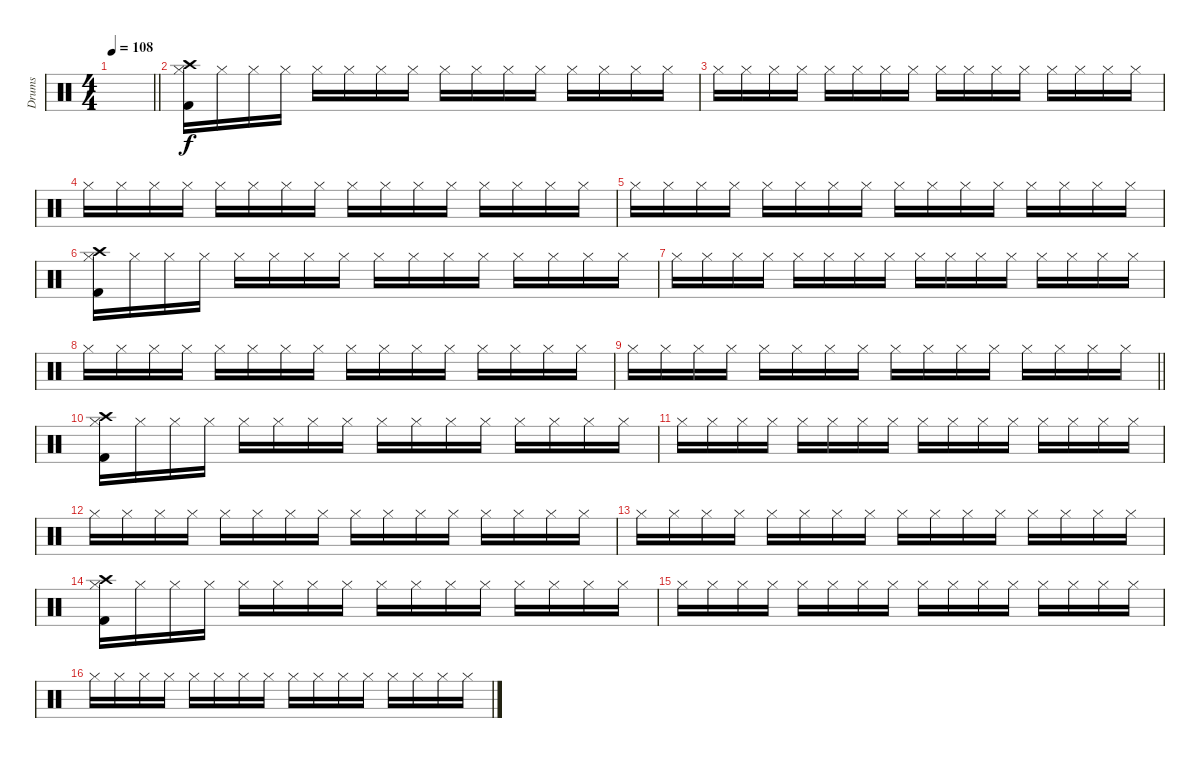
\track ("Drums" "Drums") {instrument percussion}
\staff {score}
\articulation defaults
\ts (4 4)
\tempo 108
\clef neutral
\barLineRight lightlight
\ks c
|
\section ("" "")
("Crash high (hit)" "Hi-Hat (closed)" "Kick (hit) 2").16 "Hi-Hat (closed)".16 "Hi-Hat (closed)".16 "Hi-Hat (closed)".16 "Hi-Hat (closed)".16 "Hi-Hat (closed)".16 "Hi-Hat (closed)".16 "Hi-Hat (closed)".16 "Hi-Hat (closed)".16 "Hi-Hat (closed)".16 "Hi-Hat (closed)".16 "Hi-Hat (closed)".16 "Hi-Hat (closed)".16 "Hi-Hat (closed)".16 "Hi-Hat (closed)".16 "Hi-Hat (closed)".16 |
"Hi-Hat (closed)".16 "Hi-Hat (closed)".16 "Hi-Hat (closed)".16 "Hi-Hat (closed)".16 "Hi-Hat (closed)".16 "Hi-Hat (closed)".16 "Hi-Hat (closed)".16 "Hi-Hat (closed)".16 "Hi-Hat (closed)".16 "Hi-Hat (closed)".16 "Hi-Hat (closed)".16 "Hi-Hat (closed)".16 "Hi-Hat (closed)".16 "Hi-Hat (closed)".16 "Hi-Hat (closed)".16 "Hi-Hat (closed)".16 |
"Hi-Hat (closed)".16 "Hi-Hat (closed)".16 "Hi-Hat (closed)".16 "Hi-Hat (closed)".16 "Hi-Hat (closed)".16 "Hi-Hat (closed)".16 "Hi-Hat (closed)".16 "Hi-Hat (closed)".16 "Hi-Hat (closed)".16 "Hi-Hat (closed)".16 "Hi-Hat (closed)".16 "Hi-Hat (closed)".16 "Hi-Hat (closed)".16 "Hi-Hat (closed)".16 "Hi-Hat (closed)".16 "Hi-Hat (closed)".16 |
"Hi-Hat (closed)".16 "Hi-Hat (closed)".16 "Hi-Hat (closed)".16 "Hi-Hat (closed)".16 "Hi-Hat (closed)".16 "Hi-Hat (closed)".16 "Hi-Hat (closed)".16 "Hi-Hat (closed)".16 "Hi-Hat (closed)".16 "Hi-Hat (closed)".16 "Hi-Hat (closed)".16 "Hi-Hat (closed)".16 "Hi-Hat (closed)".16 "Hi-Hat (closed)".16 "Hi-Hat (closed)".16 "Hi-Hat (closed)".16 |
("Crash high (hit)" "Hi-Hat (closed)" "Kick (hit) 2").16 "Hi-Hat (closed)".16 "Hi-Hat (closed)".16 "Hi-Hat (closed)".16 "Hi-Hat (closed)".16 "Hi-Hat (closed)".16 "Hi-Hat (closed)".16 "Hi-Hat (closed)".16 "Hi-Hat (closed)".16 "Hi-Hat (closed)".16 "Hi-Hat (closed)".16 "Hi-Hat (closed)".16 "Hi-Hat (closed)".16 "Hi-Hat (closed)".16 "Hi-Hat (closed)".16 "Hi-Hat (closed)".16 |
"Hi-Hat (closed)".16 "Hi-Hat (closed)".16 "Hi-Hat (closed)".16 "Hi-Hat (closed)".16 "Hi-Hat (closed)".16 "Hi-Hat (closed)".16 "Hi-Hat (closed)".16 "Hi-Hat (closed)".16 "Hi-Hat (closed)".16 "Hi-Hat (closed)".16 "Hi-Hat (closed)".16 "Hi-Hat (closed)".16 "Hi-Hat (closed)".16 "Hi-Hat (closed)".16 "Hi-Hat (closed)".16 "Hi-Hat (closed)".16 |
"Hi-Hat (closed)".16 "Hi-Hat (closed)".16 "Hi-Hat (closed)".16 "Hi-Hat (closed)".16 "Hi-Hat (closed)".16 "Hi-Hat (closed)".16 "Hi-Hat (closed)".16 "Hi-Hat (closed)".16 "Hi-Hat (closed)".16 "Hi-Hat (closed)".16 "Hi-Hat (closed)".16 "Hi-Hat (closed)".16 "Hi-Hat (closed)".16 "Hi-Hat (closed)".16 "Hi-Hat (closed)".16 "Hi-Hat (closed)".16 |
\barLineRight lightlight "Hi-Hat (closed)".16 "Hi-Hat (closed)".16 "Hi-Hat (closed)".16 "Hi-Hat (closed)".16 "Hi-Hat (closed)".16 "Hi-Hat (closed)".16 "Hi-Hat (closed)".16 "Hi-Hat (closed)".16 "Hi-Hat (closed)".16 "Hi-Hat (closed)".16 "Hi-Hat (closed)".16 "Hi-Hat (closed)".16 "Hi-Hat (closed)".16 "Hi-Hat (closed)".16 "Hi-Hat (closed)".16 "Hi-Hat (closed)".16
|
\section ("" "")
("Crash high (hit)" "Hi-Hat (closed)" "Kick (hit) 2").16 "Hi-Hat (closed)".16 "Hi-Hat (closed)".16 "Hi-Hat (closed)".16 "Hi-Hat (closed)".16 "Hi-Hat (closed)".16 "Hi-Hat (closed)".16 "Hi-Hat (closed)".16 "Hi-Hat (closed)".16 "Hi-Hat (closed)".16 "Hi-Hat (closed)".16 "Hi-Hat (closed)".16 "Hi-Hat (closed)".16 "Hi-Hat (closed)".16 "Hi-Hat (closed)".16 "Hi-Hat (closed)".16 |
"Hi-Hat (closed)".16 "Hi-Hat (closed)".16 "Hi-Hat (closed)".16 "Hi-Hat (closed)".16 "Hi-Hat (closed)".16 "Hi-Hat (closed)".16 "Hi-Hat (closed)".16 "Hi-Hat (closed)".16 "Hi-Hat (closed)".16 "Hi-Hat (closed)".16 "Hi-Hat (closed)".16 "Hi-Hat (closed)".16 "Hi-Hat (closed)".16 "Hi-Hat (closed)".16 "Hi-Hat (closed)".16 "Hi-Hat (closed)".16 |
"Hi-Hat (closed)".16 "Hi-Hat (closed)".16 "Hi-Hat (closed)".16 "Hi-Hat (closed)".16 "Hi-Hat (closed)".16 "Hi-Hat (closed)".16 "Hi-Hat (closed)".16 "Hi-Hat (closed)".16 "Hi-Hat (closed)".16 "Hi-Hat (closed)".16 "Hi-Hat (closed)".16 "Hi-Hat (closed)".16 "Hi-Hat (closed)".16 "Hi-Hat (closed)".16 "Hi-Hat (closed)".16 "Hi-Hat (closed)".16 |
"Hi-Hat (closed)".16 "Hi-Hat (closed)".16 "Hi-Hat (closed)".16 "Hi-Hat (closed)".16 "Hi-Hat (closed)".16 "Hi-Hat (closed)".16 "Hi-Hat (closed)".16 "Hi-Hat (closed)".16 "Hi-Hat (closed)".16 "Hi-Hat (closed)".16 "Hi-Hat (closed)".16 "Hi-Hat (closed)".16 "Hi-Hat (closed)".16 "Hi-Hat (closed)".16 "Hi-Hat (closed)".16 "Hi-Hat (closed)".16 |
("Crash high (hit)" "Hi-Hat (closed)" "Kick (hit) 2").16 "Hi-Hat (closed)".16 "Hi-Hat (closed)".16 "Hi-Hat (closed)".16 "Hi-Hat (closed)".16 "Hi-Hat (closed)".16 "Hi-Hat (closed)".16 "Hi-Hat (closed)".16 "Hi-Hat (closed)".16 "Hi-Hat (closed)".16 "Hi-Hat (closed)".16 "Hi-Hat (closed)".16 "Hi-Hat (closed)".16 "Hi-Hat (closed)".16 "Hi-Hat (closed)".16 "Hi-Hat (closed)".16 |
"Hi-Hat (closed)".16 "Hi-Hat (closed)".16 "Hi-Hat (closed)".16 "Hi-Hat (closed)".16 "Hi-Hat (closed)".16 "Hi-Hat (closed)".16 "Hi-Hat (closed)".16 "Hi-Hat (closed)".16 "Hi-Hat (closed)".16 "Hi-Hat (closed)".16 "Hi-Hat (closed)".16 "Hi-Hat (closed)".16 "Hi-Hat (closed)".16 "Hi-Hat (closed)".16 "Hi-Hat (closed)".16 "Hi-Hat (closed)".16 |
"Hi-Hat (closed)".16 "Hi-Hat (closed)".16 "Hi-Hat (closed)".16 "Hi-Hat (closed)".16 "Hi-Hat (closed)".16 "Hi-Hat (closed)".16 "Hi-Hat (closed)".16 "Hi-Hat (closed)".16 "Hi-Hat (closed)".16 "Hi-Hat (closed)".16 "Hi-Hat (closed)".16 "Hi-Hat (closed)".16 "Hi-Hat (closed)".16 "Hi-Hat (closed)".16 "Hi-Hat (closed)".16 "Hi-Hat (closed)".16
